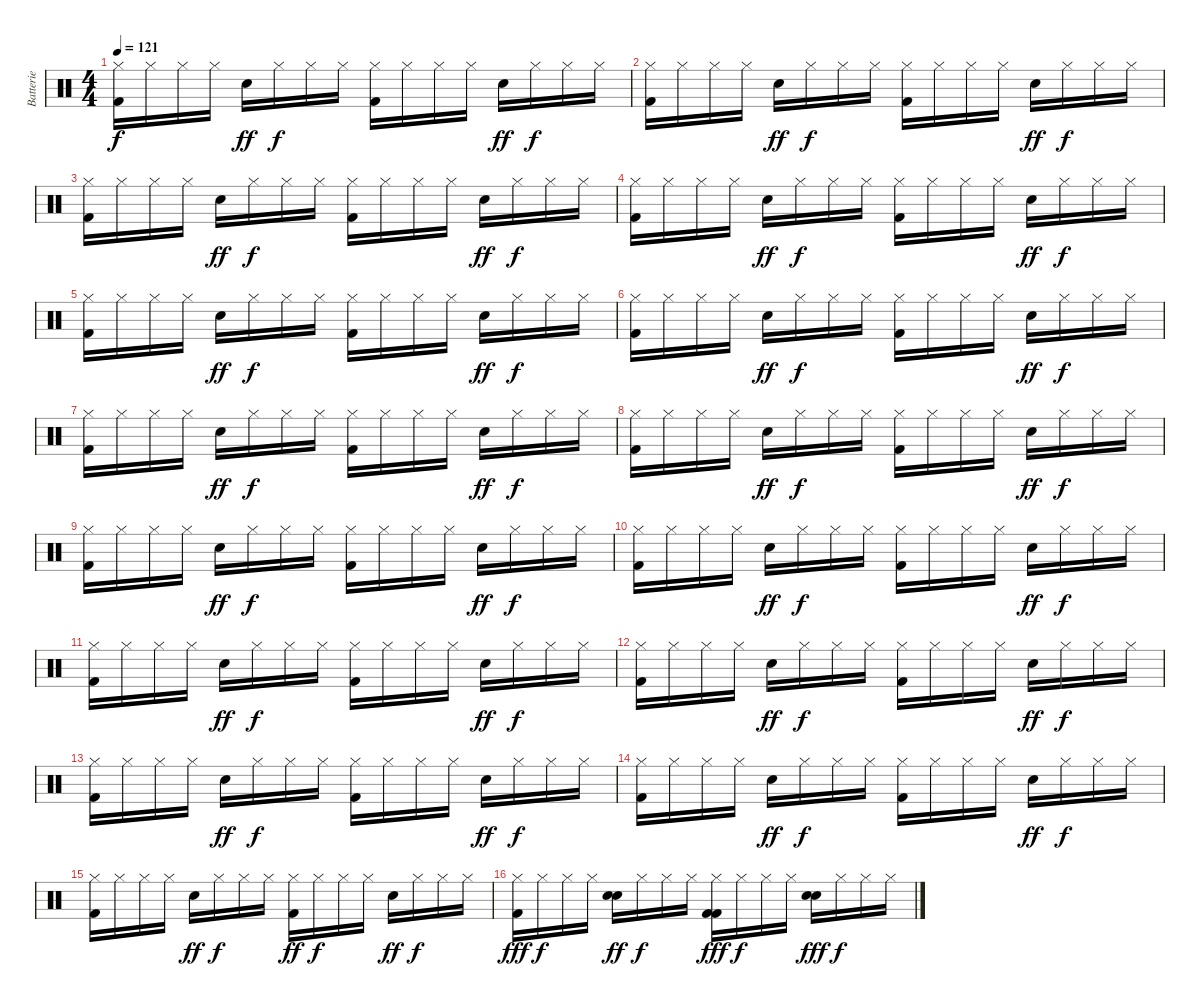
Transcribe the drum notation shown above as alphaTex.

\track ("Batterie" "Batterie") {instrument percussion}
\staff {score}
\articulation defaults
\ts (4 4)
\tempo 121
\clef neutral
\ks c
("Hi-Hat (closed)" "Kick (hit) 2").16{dy f} "Hi-Hat (closed)".16 "Hi-Hat (closed)".16 "Hi-Hat (closed)".16 "Electric Snare (hit)".16{dy ff} "Hi-Hat (closed)".16{dy f} "Hi-Hat (closed)".16 "Hi-Hat (closed)".16 ("Hi-Hat (closed)" "Kick (hit) 2").16 "Hi-Hat (closed)".16 "Hi-Hat (closed)".16 "Hi-Hat (closed)".16 "Electric Snare (hit)".16{dy ff} "Hi-Hat (closed)".16{dy f} "Hi-Hat (closed)".16 "Hi-Hat (closed)".16 |
("Hi-Hat (closed)" "Kick (hit) 2").16 "Hi-Hat (closed)".16 "Hi-Hat (closed)".16 "Hi-Hat (closed)".16 "Electric Snare (hit)".16{dy ff} "Hi-Hat (closed)".16{dy f} "Hi-Hat (closed)".16 "Hi-Hat (closed)".16 ("Hi-Hat (closed)" "Kick (hit) 2").16 "Hi-Hat (closed)".16 "Hi-Hat (closed)".16 "Hi-Hat (closed)".16 "Electric Snare (hit)".16{dy ff} "Hi-Hat (closed)".16{dy f} "Hi-Hat (closed)".16 "Hi-Hat (closed)".16 |
("Hi-Hat (closed)" "Kick (hit) 2").16 "Hi-Hat (closed)".16 "Hi-Hat (closed)".16 "Hi-Hat (closed)".16 "Electric Snare (hit)".16{dy ff} "Hi-Hat (closed)".16{dy f} "Hi-Hat (closed)".16 "Hi-Hat (closed)".16 ("Hi-Hat (closed)" "Kick (hit) 2").16 "Hi-Hat (closed)".16 "Hi-Hat (closed)".16 "Hi-Hat (closed)".16 "Electric Snare (hit)".16{dy ff} "Hi-Hat (closed)".16{dy f} "Hi-Hat (closed)".16 "Hi-Hat (closed)".16 |
("Hi-Hat (closed)" "Kick (hit) 2").16 "Hi-Hat (closed)".16 "Hi-Hat (closed)".16 "Hi-Hat (closed)".16 "Electric Snare (hit)".16{dy ff} "Hi-Hat (closed)".16{dy f} "Hi-Hat (closed)".16 "Hi-Hat (closed)".16 ("Hi-Hat (closed)" "Kick (hit) 2").16 "Hi-Hat (closed)".16 "Hi-Hat (closed)".16 "Hi-Hat (closed)".16 "Electric Snare (hit)".16{dy ff} "Hi-Hat (closed)".16{dy f} "Hi-Hat (closed)".16 "Hi-Hat (closed)".16 |
("Hi-Hat (closed)" "Kick (hit) 2").16 "Hi-Hat (closed)".16 "Hi-Hat (closed)".16 "Hi-Hat (closed)".16 "Electric Snare (hit)".16{dy ff} "Hi-Hat (closed)".16{dy f} "Hi-Hat (closed)".16 "Hi-Hat (closed)".16 ("Hi-Hat (closed)" "Kick (hit) 2").16 "Hi-Hat (closed)".16 "Hi-Hat (closed)".16 "Hi-Hat (closed)".16 "Electric Snare (hit)".16{dy ff} "Hi-Hat (closed)".16{dy f} "Hi-Hat (closed)".16 "Hi-Hat (closed)".16 |
("Hi-Hat (closed)" "Kick (hit) 2").16 "Hi-Hat (closed)".16 "Hi-Hat (closed)".16 "Hi-Hat (closed)".16 "Electric Snare (hit)".16{dy ff} "Hi-Hat (closed)".16{dy f} "Hi-Hat (closed)".16 "Hi-Hat (closed)".16 ("Hi-Hat (closed)" "Kick (hit) 2").16 "Hi-Hat (closed)".16 "Hi-Hat (closed)".16 "Hi-Hat (closed)".16 "Electric Snare (hit)".16{dy ff} "Hi-Hat (closed)".16{dy f} "Hi-Hat (closed)".16 "Hi-Hat (closed)".16 |
("Hi-Hat (closed)" "Kick (hit) 2").16 "Hi-Hat (closed)".16 "Hi-Hat (closed)".16 "Hi-Hat (closed)".16 "Electric Snare (hit)".16{dy ff} "Hi-Hat (closed)".16{dy f} "Hi-Hat (closed)".16 "Hi-Hat (closed)".16 ("Hi-Hat (closed)" "Kick (hit) 2").16 "Hi-Hat (closed)".16 "Hi-Hat (closed)".16 "Hi-Hat (closed)".16 "Electric Snare (hit)".16{dy ff} "Hi-Hat (closed)".16{dy f} "Hi-Hat (closed)".16 "Hi-Hat (closed)".16 |
("Hi-Hat (closed)" "Kick (hit) 2").16 "Hi-Hat (closed)".16 "Hi-Hat (closed)".16 "Hi-Hat (closed)".16 "Electric Snare (hit)".16{dy ff} "Hi-Hat (closed)".16{dy f} "Hi-Hat (closed)".16 "Hi-Hat (closed)".16 ("Hi-Hat (closed)" "Kick (hit) 2").16 "Hi-Hat (closed)".16 "Hi-Hat (closed)".16 "Hi-Hat (closed)".16 "Electric Snare (hit)".16{dy ff} "Hi-Hat (closed)".16{dy f} "Hi-Hat (closed)".16 "Hi-Hat (closed)".16 |
("Hi-Hat (closed)" "Kick (hit) 2").16 "Hi-Hat (closed)".16 "Hi-Hat (closed)".16 "Hi-Hat (closed)".16 "Electric Snare (hit)".16{dy ff} "Hi-Hat (closed)".16{dy f} "Hi-Hat (closed)".16 "Hi-Hat (closed)".16 ("Hi-Hat (closed)" "Kick (hit) 2").16 "Hi-Hat (closed)".16 "Hi-Hat (closed)".16 "Hi-Hat (closed)".16 "Electric Snare (hit)".16{dy ff} "Hi-Hat (closed)".16{dy f} "Hi-Hat (closed)".16 "Hi-Hat (closed)".16 |
("Hi-Hat (closed)" "Kick (hit) 2").16 "Hi-Hat (closed)".16 "Hi-Hat (closed)".16 "Hi-Hat (closed)".16 "Electric Snare (hit)".16{dy ff} "Hi-Hat (closed)".16{dy f} "Hi-Hat (closed)".16 "Hi-Hat (closed)".16 ("Hi-Hat (closed)" "Kick (hit) 2").16 "Hi-Hat (closed)".16 "Hi-Hat (closed)".16 "Hi-Hat (closed)".16 "Electric Snare (hit)".16{dy ff} "Hi-Hat (closed)".16{dy f} "Hi-Hat (closed)".16 "Hi-Hat (closed)".16 |
("Hi-Hat (closed)" "Kick (hit) 2").16 "Hi-Hat (closed)".16 "Hi-Hat (closed)".16 "Hi-Hat (closed)".16 "Electric Snare (hit)".16{dy ff} "Hi-Hat (closed)".16{dy f} "Hi-Hat (closed)".16 "Hi-Hat (closed)".16 ("Hi-Hat (closed)" "Kick (hit) 2").16 "Hi-Hat (closed)".16 "Hi-Hat (closed)".16 "Hi-Hat (closed)".16 "Electric Snare (hit)".16{dy ff} "Hi-Hat (closed)".16{dy f} "Hi-Hat (closed)".16 "Hi-Hat (closed)".16 |
("Hi-Hat (closed)" "Kick (hit) 2").16 "Hi-Hat (closed)".16 "Hi-Hat (closed)".16 "Hi-Hat (closed)".16 "Electric Snare (hit)".16{dy ff} "Hi-Hat (closed)".16{dy f} "Hi-Hat (closed)".16 "Hi-Hat (closed)".16 ("Hi-Hat (closed)" "Kick (hit) 2").16 "Hi-Hat (closed)".16 "Hi-Hat (closed)".16 "Hi-Hat (closed)".16 "Electric Snare (hit)".16{dy ff} "Hi-Hat (closed)".16{dy f} "Hi-Hat (closed)".16 "Hi-Hat (closed)".16 |
("Hi-Hat (closed)" "Kick (hit) 2").16 "Hi-Hat (closed)".16 "Hi-Hat (closed)".16 "Hi-Hat (closed)".16 "Electric Snare (hit)".16{dy ff} "Hi-Hat (closed)".16{dy f} "Hi-Hat (closed)".16 "Hi-Hat (closed)".16 ("Hi-Hat (closed)" "Kick (hit) 2").16 "Hi-Hat (closed)".16 "Hi-Hat (closed)".16 "Hi-Hat (closed)".16 "Electric Snare (hit)".16{dy ff} "Hi-Hat (closed)".16{dy f} "Hi-Hat (closed)".16 "Hi-Hat (closed)".16 |
("Hi-Hat (closed)" "Kick (hit) 2").16 "Hi-Hat (closed)".16 "Hi-Hat (closed)".16 "Hi-Hat (closed)".16 "Electric Snare (hit)".16{dy ff} "Hi-Hat (closed)".16{dy f} "Hi-Hat (closed)".16 "Hi-Hat (closed)".16 ("Hi-Hat (closed)" "Kick (hit) 2").16 "Hi-Hat (closed)".16 "Hi-Hat (closed)".16 "Hi-Hat (closed)".16 "Electric Snare (hit)".16{dy ff} "Hi-Hat (closed)".16{dy f} "Hi-Hat (closed)".16 "Hi-Hat (closed)".16 |
("Hi-Hat (closed)" "Kick (hit) 2").16{volume 8} "Hi-Hat (closed)".16 "Hi-Hat (closed)".16 "Hi-Hat (closed)".16 "Electric Snare (hit)".16{dy ff} "Hi-Hat (closed)".16{dy f} "Hi-Hat (closed)".16 "Hi-Hat (closed)".16 ("Hi-Hat (closed)" "Kick (hit) 2").16{dy ff} "Hi-Hat (closed)".16{dy f} "Hi-Hat (closed)".16 "Hi-Hat (closed)".16 "Electric Snare (hit)".16{dy ff} "Hi-Hat (closed)".16{dy f} "Hi-Hat (closed)".16 "Hi-Hat (closed)".16 |
("Hi-Hat (closed)" "Kick (hit) 2").16{dy fff} "Hi-Hat (closed)".16{dy f} "Hi-Hat (closed)".16 "Hi-Hat (closed)".16 ("Electric Snare (hit)" "Electric Snare (hit)").16{dy ff} "Hi-Hat (closed)".16{dy f} "Hi-Hat (closed)".16 "Hi-Hat (closed)".16 ("Hi-Hat (closed)" "Kick (hit) 2" "Kick (hit) 2").16{dy fff} "Hi-Hat (closed)".16{dy f} "Hi-Hat (closed)".16 "Hi-Hat (closed)".16 ("Electric Snare (hit)" "Electric Snare (hit)").16{dy fff} "Hi-Hat (closed)".16{dy f} "Hi-Hat (closed)".16 "Hi-Hat (closed)".16
